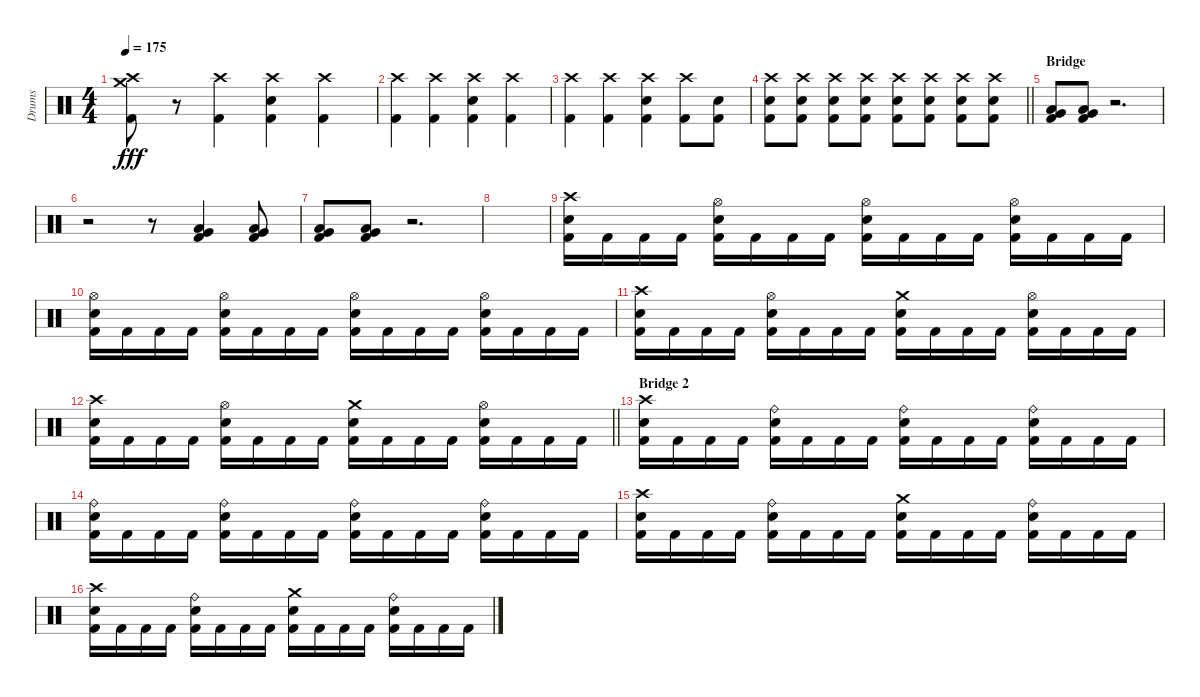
\track ("Drums" "Drums") {instrument percussion}
\staff {score}
\articulation defaults
\ts (4 4)
\tempo 175
\clef neutral
\ks c
("Crash high (hit)" "Crash medium (hit)" "Kick (hit) 2").8{dy fff} r.8 ("Crash high (hit)" "Kick (hit) 2").4 ("Crash high (hit)" "Electric Snare (hit)" "Kick (hit) 2").4 ("Crash high (hit)" "Kick (hit) 2").4 |
("Crash high (hit)" "Kick (hit) 2").4 ("Crash high (hit)" "Kick (hit) 2").4 ("Crash high (hit)" "Electric Snare (hit)" "Kick (hit) 2").4 ("Crash high (hit)" "Kick (hit) 2").4 |
("Crash high (hit)" "Kick (hit) 2").4 ("Crash high (hit)" "Kick (hit) 2").4 ("Crash high (hit)" "Electric Snare (hit)" "Kick (hit) 2").4 ("Crash high (hit)" "Kick (hit) 2").8 ("Electric Snare (hit)" "Kick (hit) 2").8 |
\barLineRight lightlight
("Crash high (hit)" "Electric Snare (hit)" "Kick (hit) 2").8 ("Crash high (hit)" "Electric Snare (hit)" "Kick (hit) 2").8 ("Crash high (hit)" "Electric Snare (hit)" "Kick (hit) 2").8 ("Crash high (hit)" "Electric Snare (hit)" "Kick (hit) 2").8 ("Crash high (hit)" "Electric Snare (hit)" "Kick (hit) 2").8 ("Crash high (hit)" "Electric Snare (hit)" "Kick (hit) 2").8 ("Crash high (hit)" "Electric Snare (hit)" "Kick (hit) 2").8 ("Crash high (hit)" "Electric Snare (hit)" "Kick (hit) 2").8 |
\section ("" "Bridge")
("Low Floor Tom (hit)" "Very Low Tom (hit)" "Kick (hit) 2").8 ("Low Floor Tom (hit)" "Very Low Tom (hit)" "Kick (hit) 2").8 r.2{d} |
r.2 r.8 ("Low Floor Tom (hit)" "Very Low Tom (hit)" "Kick (hit) 2").4 ("Low Floor Tom (hit)" "Very Low Tom (hit)" "Kick (hit) 2").8 |
("Low Floor Tom (hit)" "Very Low Tom (hit)" "Kick (hit) 2").8 ("Low Floor Tom (hit)" "Very Low Tom (hit)" "Kick (hit) 2").8 r.2{d} |
|
("Crash high (hit)" "Electric Snare (hit)" "Kick (hit) 2").16 "Kick (hit) 2".16 "Kick (hit) 2".16 "Kick (hit) 2".16 ("Hi-Hat (open)" "Electric Snare (hit)" "Kick (hit) 2").16 "Kick (hit) 2".16 "Kick (hit) 2".16 "Kick (hit) 2".16 ("Hi-Hat (open)" "Electric Snare (hit)" "Kick (hit) 2").16 "Kick (hit) 2".16 "Kick (hit) 2".16 "Kick (hit) 2".16 ("Hi-Hat (open)" "Electric Snare (hit)" "Kick (hit) 2").16 "Kick (hit) 2".16 "Kick (hit) 2".16 "Kick (hit) 2".16 |
("Hi-Hat (open)" "Electric Snare (hit)" "Kick (hit) 2").16 "Kick (hit) 2".16 "Kick (hit) 2".16 "Kick (hit) 2".16 ("Hi-Hat (open)" "Electric Snare (hit)" "Kick (hit) 2").16 "Kick (hit) 2".16 "Kick (hit) 2".16 "Kick (hit) 2".16 ("Hi-Hat (open)" "Electric Snare (hit)" "Kick (hit) 2").16 "Kick (hit) 2".16 "Kick (hit) 2".16 "Kick (hit) 2".16 ("Hi-Hat (open)" "Electric Snare (hit)" "Kick (hit) 2").16 "Kick (hit) 2".16 "Kick (hit) 2".16 "Kick (hit) 2".16 |
("Crash high (hit)" "Electric Snare (hit)" "Kick (hit) 2").16 "Kick (hit) 2".16 "Kick (hit) 2".16 "Kick (hit) 2".16 ("Hi-Hat (open)" "Electric Snare (hit)" "Kick (hit) 2").16 "Kick (hit) 2".16 "Kick (hit) 2".16 "Kick (hit) 2".16 ("Crash medium (hit)" "Electric Snare (hit)" "Kick (hit) 2").16 "Kick (hit) 2".16 "Kick (hit) 2".16 "Kick (hit) 2".16 ("Hi-Hat (open)" "Electric Snare (hit)" "Kick (hit) 2").16 "Kick (hit) 2".16 "Kick (hit) 2".16 "Kick (hit) 2".16 |
\barLineRight lightlight
("Crash high (hit)" "Electric Snare (hit)" "Kick (hit) 2").16 "Kick (hit) 2".16 "Kick (hit) 2".16 "Kick (hit) 2".16 ("Hi-Hat (open)" "Electric Snare (hit)" "Kick (hit) 2").16 "Kick (hit) 2".16 "Kick (hit) 2".16 "Kick (hit) 2".16 ("Crash medium (hit)" "Electric Snare (hit)" "Kick (hit) 2").16 "Kick (hit) 2".16 "Kick (hit) 2".16 "Kick (hit) 2".16 ("Hi-Hat (open)" "Electric Snare (hit)" "Kick (hit) 2").16 "Kick (hit) 2".16 "Kick (hit) 2".16 "Kick (hit) 2".16 |
\section ("" "Bridge 2")
("Crash high (hit)" "Electric Snare (hit)" "Kick (hit) 2").16 "Kick (hit) 2".16 "Kick (hit) 2".16 "Kick (hit) 2".16 ("Ride (bell)" "Electric Snare (hit)" "Kick (hit) 2").16 "Kick (hit) 2".16 "Kick (hit) 2".16 "Kick (hit) 2".16 ("Ride (bell)" "Electric Snare (hit)" "Kick (hit) 2").16 "Kick (hit) 2".16 "Kick (hit) 2".16 "Kick (hit) 2".16 ("Ride (bell)" "Electric Snare (hit)" "Kick (hit) 2").16 "Kick (hit) 2".16 "Kick (hit) 2".16 "Kick (hit) 2".16 |
("Ride (bell)" "Electric Snare (hit)" "Kick (hit) 2").16 "Kick (hit) 2".16 "Kick (hit) 2".16 "Kick (hit) 2".16 ("Ride (bell)" "Electric Snare (hit)" "Kick (hit) 2").16 "Kick (hit) 2".16 "Kick (hit) 2".16 "Kick (hit) 2".16 ("Ride (bell)" "Electric Snare (hit)" "Kick (hit) 2").16 "Kick (hit) 2".16 "Kick (hit) 2".16 "Kick (hit) 2".16 ("Ride (bell)" "Electric Snare (hit)" "Kick (hit) 2").16 "Kick (hit) 2".16 "Kick (hit) 2".16 "Kick (hit) 2".16 |
("Crash high (hit)" "Electric Snare (hit)" "Kick (hit) 2").16 "Kick (hit) 2".16 "Kick (hit) 2".16 "Kick (hit) 2".16 ("Ride (bell)" "Electric Snare (hit)" "Kick (hit) 2").16 "Kick (hit) 2".16 "Kick (hit) 2".16 "Kick (hit) 2".16 ("Crash medium (hit)" "Electric Snare (hit)" "Kick (hit) 2").16 "Kick (hit) 2".16 "Kick (hit) 2".16 "Kick (hit) 2".16 ("Ride (bell)" "Electric Snare (hit)" "Kick (hit) 2").16 "Kick (hit) 2".16 "Kick (hit) 2".16 "Kick (hit) 2".16 |
("Crash high (hit)" "Electric Snare (hit)" "Kick (hit) 2").16 "Kick (hit) 2".16 "Kick (hit) 2".16 "Kick (hit) 2".16 ("Ride (bell)" "Electric Snare (hit)" "Kick (hit) 2").16 "Kick (hit) 2".16 "Kick (hit) 2".16 "Kick (hit) 2".16 ("Crash medium (hit)" "Electric Snare (hit)" "Kick (hit) 2").16 "Kick (hit) 2".16 "Kick (hit) 2".16 "Kick (hit) 2".16 ("Ride (bell)" "Electric Snare (hit)" "Kick (hit) 2").16 "Kick (hit) 2".16 "Kick (hit) 2".16 "Kick (hit) 2".16
